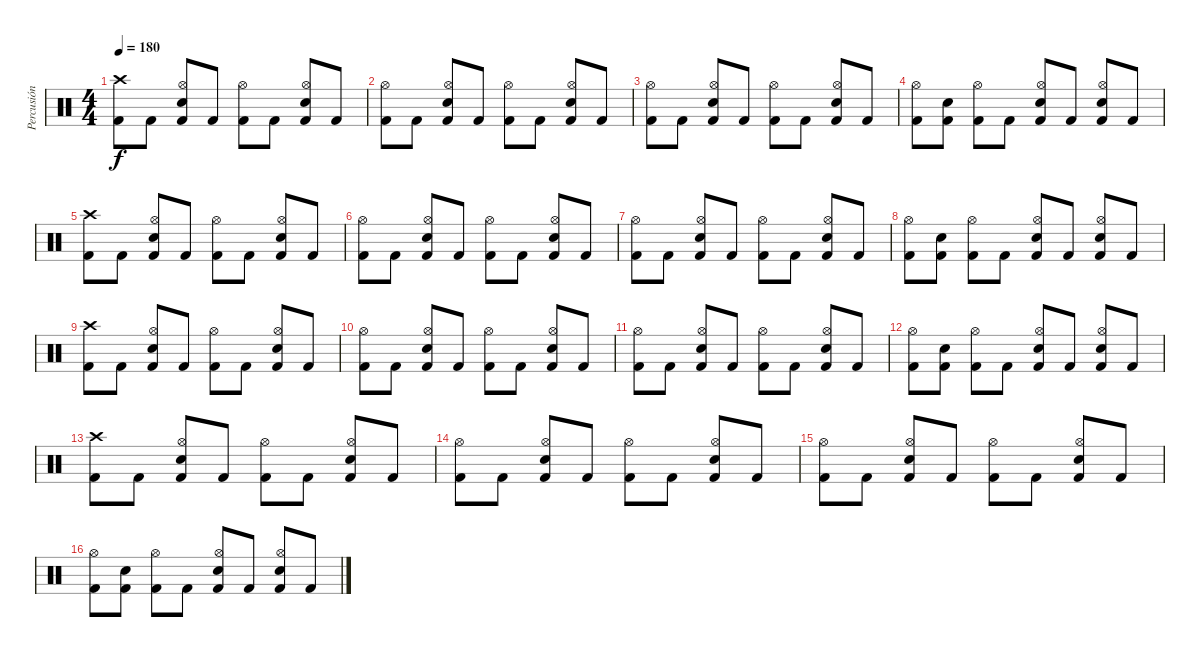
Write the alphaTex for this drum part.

\track ("Percusión" "Percusión") {instrument percussion}
\staff {score}
\articulation defaults
\ts (4 4)
\tempo 180
\clef neutral
\ks c
("Crash high (hit)" "Kick (hit) 2").8{dy f} "Kick (hit) 2".8 ("Hi-Hat (open)" "Electric Snare (hit)" "Kick (hit) 2").8 "Kick (hit) 2".8 ("Hi-Hat (open)" "Kick (hit) 2").8 "Kick (hit) 2".8 ("Hi-Hat (open)" "Electric Snare (hit)" "Kick (hit) 2").8 "Kick (hit) 2".8 |
("Hi-Hat (open)" "Kick (hit) 2").8 "Kick (hit) 2".8 ("Hi-Hat (open)" "Electric Snare (hit)" "Kick (hit) 2").8 "Kick (hit) 2".8 ("Hi-Hat (open)" "Kick (hit) 2").8 "Kick (hit) 2".8 ("Hi-Hat (open)" "Electric Snare (hit)" "Kick (hit) 2").8 "Kick (hit) 2".8 |
("Hi-Hat (open)" "Kick (hit) 2").8 "Kick (hit) 2".8 ("Hi-Hat (open)" "Electric Snare (hit)" "Kick (hit) 2").8 "Kick (hit) 2".8 ("Hi-Hat (open)" "Kick (hit) 2").8 "Kick (hit) 2".8 ("Hi-Hat (open)" "Electric Snare (hit)" "Kick (hit) 2").8 "Kick (hit) 2".8 |
("Hi-Hat (open)" "Kick (hit) 2").8 ("Electric Snare (hit)" "Kick (hit) 2").8 ("Hi-Hat (open)" "Kick (hit) 2").8 "Kick (hit) 2".8 ("Hi-Hat (open)" "Electric Snare (hit)" "Kick (hit) 2").8 "Kick (hit) 2".8 ("Hi-Hat (open)" "Electric Snare (hit)" "Kick (hit) 2").8 "Kick (hit) 2".8 |
("Crash high (hit)" "Kick (hit) 2").8 "Kick (hit) 2".8 ("Hi-Hat (open)" "Electric Snare (hit)" "Kick (hit) 2").8 "Kick (hit) 2".8 ("Hi-Hat (open)" "Kick (hit) 2").8 "Kick (hit) 2".8 ("Hi-Hat (open)" "Electric Snare (hit)" "Kick (hit) 2").8 "Kick (hit) 2".8 |
("Hi-Hat (open)" "Kick (hit) 2").8 "Kick (hit) 2".8 ("Hi-Hat (open)" "Electric Snare (hit)" "Kick (hit) 2").8 "Kick (hit) 2".8 ("Hi-Hat (open)" "Kick (hit) 2").8 "Kick (hit) 2".8 ("Hi-Hat (open)" "Electric Snare (hit)" "Kick (hit) 2").8 "Kick (hit) 2".8 |
("Hi-Hat (open)" "Kick (hit) 2").8 "Kick (hit) 2".8 ("Hi-Hat (open)" "Electric Snare (hit)" "Kick (hit) 2").8 "Kick (hit) 2".8 ("Hi-Hat (open)" "Kick (hit) 2").8 "Kick (hit) 2".8 ("Hi-Hat (open)" "Electric Snare (hit)" "Kick (hit) 2").8 "Kick (hit) 2".8 |
("Hi-Hat (open)" "Kick (hit) 2").8 ("Electric Snare (hit)" "Kick (hit) 2").8 ("Hi-Hat (open)" "Kick (hit) 2").8 "Kick (hit) 2".8 ("Hi-Hat (open)" "Electric Snare (hit)" "Kick (hit) 2").8 "Kick (hit) 2".8 ("Hi-Hat (open)" "Electric Snare (hit)" "Kick (hit) 2").8 "Kick (hit) 2".8 |
("Crash high (hit)" "Kick (hit) 2").8 "Kick (hit) 2".8 ("Hi-Hat (open)" "Electric Snare (hit)" "Kick (hit) 2").8 "Kick (hit) 2".8 ("Hi-Hat (open)" "Kick (hit) 2").8 "Kick (hit) 2".8 ("Hi-Hat (open)" "Electric Snare (hit)" "Kick (hit) 2").8 "Kick (hit) 2".8 |
("Hi-Hat (open)" "Kick (hit) 2").8 "Kick (hit) 2".8 ("Hi-Hat (open)" "Electric Snare (hit)" "Kick (hit) 2").8 "Kick (hit) 2".8 ("Hi-Hat (open)" "Kick (hit) 2").8 "Kick (hit) 2".8 ("Hi-Hat (open)" "Electric Snare (hit)" "Kick (hit) 2").8 "Kick (hit) 2".8 |
("Hi-Hat (open)" "Kick (hit) 2").8 "Kick (hit) 2".8 ("Hi-Hat (open)" "Electric Snare (hit)" "Kick (hit) 2").8 "Kick (hit) 2".8 ("Hi-Hat (open)" "Kick (hit) 2").8 "Kick (hit) 2".8 ("Hi-Hat (open)" "Electric Snare (hit)" "Kick (hit) 2").8 "Kick (hit) 2".8 |
("Hi-Hat (open)" "Kick (hit) 2").8 ("Electric Snare (hit)" "Kick (hit) 2").8 ("Hi-Hat (open)" "Kick (hit) 2").8 "Kick (hit) 2".8 ("Hi-Hat (open)" "Electric Snare (hit)" "Kick (hit) 2").8 "Kick (hit) 2".8 ("Hi-Hat (open)" "Electric Snare (hit)" "Kick (hit) 2").8 "Kick (hit) 2".8 |
("Crash high (hit)" "Kick (hit) 2").8 "Kick (hit) 2".8 ("Hi-Hat (open)" "Electric Snare (hit)" "Kick (hit) 2").8 "Kick (hit) 2".8 ("Hi-Hat (open)" "Kick (hit) 2").8 "Kick (hit) 2".8 ("Hi-Hat (open)" "Electric Snare (hit)" "Kick (hit) 2").8 "Kick (hit) 2".8 |
("Hi-Hat (open)" "Kick (hit) 2").8 "Kick (hit) 2".8 ("Hi-Hat (open)" "Electric Snare (hit)" "Kick (hit) 2").8 "Kick (hit) 2".8 ("Hi-Hat (open)" "Kick (hit) 2").8 "Kick (hit) 2".8 ("Hi-Hat (open)" "Electric Snare (hit)" "Kick (hit) 2").8 "Kick (hit) 2".8 |
("Hi-Hat (open)" "Kick (hit) 2").8 "Kick (hit) 2".8 ("Hi-Hat (open)" "Electric Snare (hit)" "Kick (hit) 2").8 "Kick (hit) 2".8 ("Hi-Hat (open)" "Kick (hit) 2").8 "Kick (hit) 2".8 ("Hi-Hat (open)" "Electric Snare (hit)" "Kick (hit) 2").8 "Kick (hit) 2".8 |
("Hi-Hat (open)" "Kick (hit) 2").8 ("Electric Snare (hit)" "Kick (hit) 2").8 ("Hi-Hat (open)" "Kick (hit) 2").8 "Kick (hit) 2".8 ("Hi-Hat (open)" "Electric Snare (hit)" "Kick (hit) 2").8 "Kick (hit) 2".8 ("Hi-Hat (open)" "Electric Snare (hit)" "Kick (hit) 2").8 "Kick (hit) 2".8
